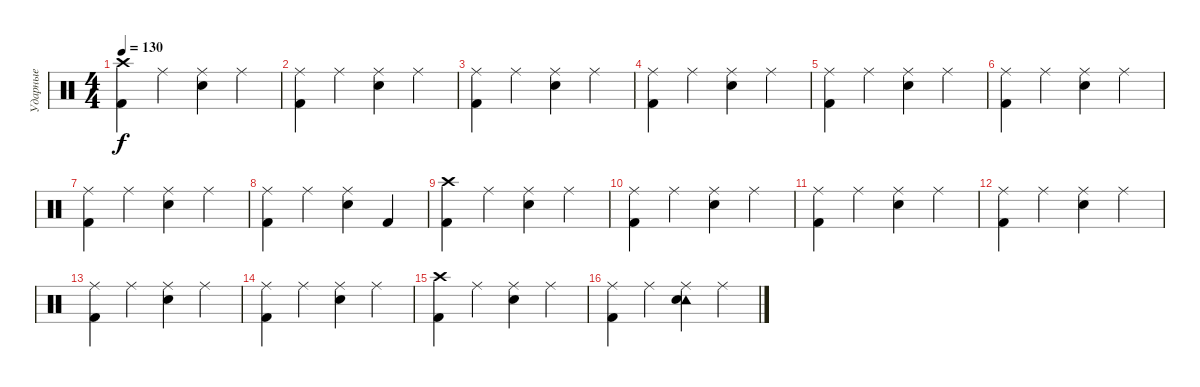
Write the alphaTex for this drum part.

\track ("Ударные" "Ударные") {instrument percussion}
\staff {score}
\articulation defaults
\ts (4 4)
\tempo 130
\clef neutral
\ks c
("Crash high (hit)" "Kick (hit) 2").4{dy f} "Ride (middle)".4 ("Ride (middle)" "Electric Snare (hit)").4 "Ride (middle)".4 |
("Ride (middle)" "Kick (hit) 2").4 "Ride (middle)".4 ("Ride (middle)" "Electric Snare (hit)").4 "Ride (middle)".4 |
("Ride (middle)" "Kick (hit) 2").4 "Ride (middle)".4 ("Ride (middle)" "Electric Snare (hit)").4 "Ride (middle)".4 |
("Ride (middle)" "Kick (hit) 2").4 "Ride (middle)".4 ("Ride (middle)" "Electric Snare (hit)").4 "Ride (middle)".4 |
("Ride (middle)" "Kick (hit) 2").4 "Ride (middle)".4 ("Ride (middle)" "Electric Snare (hit)").4 "Ride (middle)".4 |
("Ride (middle)" "Kick (hit) 2").4 "Ride (middle)".4 ("Ride (middle)" "Electric Snare (hit)").4 "Ride (middle)".4 |
("Ride (middle)" "Kick (hit) 2").4 "Ride (middle)".4 ("Ride (middle)" "Electric Snare (hit)").4 "Ride (middle)".4 |
("Ride (middle)" "Kick (hit) 2").4 "Ride (middle)".4 ("Ride (middle)" "Electric Snare (hit)").4 "Kick (hit) 2".4 |
("Crash high (hit)" "Kick (hit) 2").4 "Ride (middle)".4 ("Ride (middle)" "Electric Snare (hit)").4 "Ride (middle)".4 |
("Ride (middle)" "Kick (hit) 2").4 "Ride (middle)".4 ("Ride (middle)" "Electric Snare (hit)").4 "Ride (middle)".4 |
("Ride (middle)" "Kick (hit) 2").4 "Ride (middle)".4 ("Ride (middle)" "Electric Snare (hit)").4 "Ride (middle)".4 |
("Ride (middle)" "Kick (hit) 2").4 "Ride (middle)".4 ("Ride (middle)" "Electric Snare (hit)").4 "Ride (middle)".4 |
("Ride (middle)" "Kick (hit) 2").4 "Ride (middle)".4 ("Ride (middle)" "Electric Snare (hit)").4 "Ride (middle)".4 |
("Ride (middle)" "Kick (hit) 2").4 "Ride (middle)".4 ("Ride (middle)" "Electric Snare (hit)").4 "Ride (middle)".4 |
("Crash high (hit)" "Kick (hit) 2").4 "Ride (middle)".4 ("Ride (middle)" "Electric Snare (hit)").4 "Ride (middle)".4 |
("Ride (middle)" "Kick (hit) 2").4 "Ride (middle)".4 ("Tambourine (hit)" "Ride (middle)" "Electric Snare (hit)").4 "Ride (middle)".4
